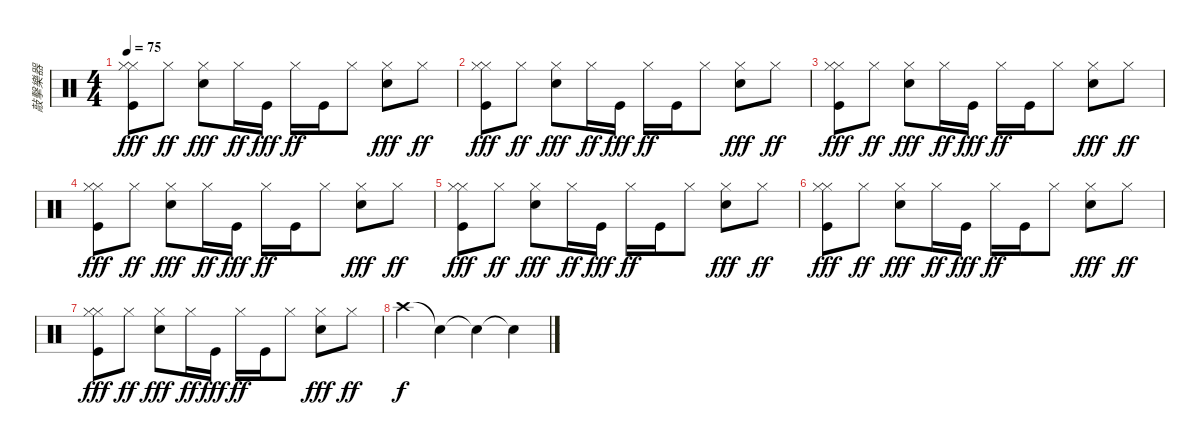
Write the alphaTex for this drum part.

\track ("敲擊樂器" "敲擊樂器") {instrument percussion}
\staff {score}
\articulation defaults
\ts (4 4)
\tempo 75
\clef neutral
\ks c
("Hi-Hat (closed)" "Hi-Hat (closed)" "Kick (hit)").8{dy fff} "Hi-Hat (closed)".8{dy ff} ("Hi-Hat (closed)" "Snare (hit) 2").8{dy fff} "Hi-Hat (closed)".16{dy ff} "Kick (hit)".16{dy fff} "Hi-Hat (closed)".16{dy ff} "Kick (hit)".16 "Hi-Hat (closed)".8 ("Hi-Hat (closed)" "Snare (hit) 2").8{dy fff} "Hi-Hat (closed)".8{dy ff} |
("Hi-Hat (closed)" "Hi-Hat (closed)" "Kick (hit)").8{dy fff} "Hi-Hat (closed)".8{dy ff} ("Hi-Hat (closed)" "Snare (hit) 2").8{dy fff} "Hi-Hat (closed)".16{dy ff} "Kick (hit)".16{dy fff} "Hi-Hat (closed)".16{dy ff} "Kick (hit)".16 "Hi-Hat (closed)".8 ("Hi-Hat (closed)" "Snare (hit) 2").8{dy fff} "Hi-Hat (closed)".8{dy ff} |
("Hi-Hat (closed)" "Hi-Hat (closed)" "Kick (hit)").8{dy fff} "Hi-Hat (closed)".8{dy ff} ("Hi-Hat (closed)" "Snare (hit) 2").8{dy fff} "Hi-Hat (closed)".16{dy ff} "Kick (hit)".16{dy fff} "Hi-Hat (closed)".16{dy ff} "Kick (hit)".16 "Hi-Hat (closed)".8 ("Hi-Hat (closed)" "Snare (hit) 2").8{dy fff} "Hi-Hat (closed)".8{dy ff} |
("Hi-Hat (closed)" "Hi-Hat (closed)" "Kick (hit)").8{dy fff} "Hi-Hat (closed)".8{dy ff} ("Hi-Hat (closed)" "Snare (hit) 2").8{dy fff} "Hi-Hat (closed)".16{dy ff} "Kick (hit)".16{dy fff} "Hi-Hat (closed)".16{dy ff} "Kick (hit)".16 "Hi-Hat (closed)".8 ("Hi-Hat (closed)" "Snare (hit) 2").8{dy fff} "Hi-Hat (closed)".8{dy ff} |
("Hi-Hat (closed)" "Hi-Hat (closed)" "Kick (hit)").8{dy fff} "Hi-Hat (closed)".8{dy ff} ("Hi-Hat (closed)" "Snare (hit) 2").8{dy fff} "Hi-Hat (closed)".16{dy ff} "Kick (hit)".16{dy fff} "Hi-Hat (closed)".16{dy ff} "Kick (hit)".16 "Hi-Hat (closed)".8 ("Hi-Hat (closed)" "Snare (hit) 2").8{dy fff} "Hi-Hat (closed)".8{dy ff} |
("Hi-Hat (closed)" "Hi-Hat (closed)" "Kick (hit)").8{dy fff} "Hi-Hat (closed)".8{dy ff} ("Hi-Hat (closed)" "Snare (hit) 2").8{dy fff} "Hi-Hat (closed)".16{dy ff} "Kick (hit)".16{dy fff} "Hi-Hat (closed)".16{dy ff} "Kick (hit)".16 "Hi-Hat (closed)".8 ("Hi-Hat (closed)" "Snare (hit) 2").8{dy fff} "Hi-Hat (closed)".8{dy ff} |
("Hi-Hat (closed)" "Hi-Hat (closed)" "Kick (hit)").8{dy fff} "Hi-Hat (closed)".8{dy ff} ("Hi-Hat (closed)" "Snare (hit) 2").8{dy fff} "Hi-Hat (closed)".16{dy ff} "Kick (hit)".16{dy fff} "Hi-Hat (closed)".16{dy ff} "Kick (hit)".16 "Hi-Hat (closed)".8 ("Hi-Hat (closed)" "Snare (hit) 2").8{dy fff} "Hi-Hat (closed)".8{dy ff} |
"Crash high (hit)".4{dy f} "Snare (hit)"{t}.4 "Snare (hit)"{t}.4 "Snare (hit)"{t}.4
